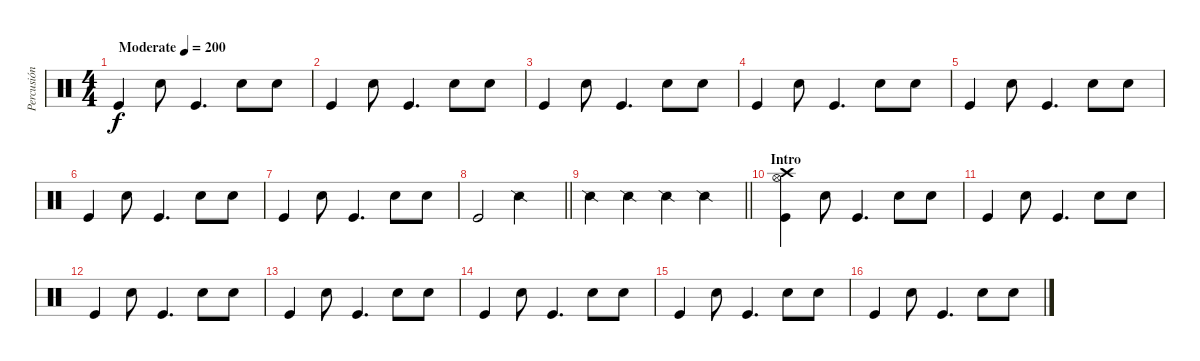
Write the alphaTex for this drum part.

\track ("Percusión" "Percusión") {instrument percussion}
\staff {score}
\articulation defaults
\ts (4 4)
\tempo (200 "Moderate")
\clef neutral
\ks c "Kick (hit)".4{dy f} "Snare (hit) 2".8 "Kick (hit)".4{d} "Snare (hit) 2".8 "Snare (hit) 2".8
|
"Kick (hit)".4 "Snare (hit) 2".8 "Kick (hit)".4{d} "Snare (hit) 2".8 "Snare (hit) 2".8 |
"Kick (hit)".4 "Snare (hit) 2".8 "Kick (hit)".4{d} "Snare (hit) 2".8 "Snare (hit) 2".8 |
"Kick (hit)".4 "Snare (hit) 2".8 "Kick (hit)".4{d} "Snare (hit) 2".8 "Snare (hit) 2".8 |
"Kick (hit)".4 "Snare (hit) 2".8 "Kick (hit)".4{d} "Snare (hit) 2".8 "Snare (hit) 2".8 |
"Kick (hit)".4 "Snare (hit) 2".8 "Kick (hit)".4{d} "Snare (hit) 2".8 "Snare (hit) 2".8 |
"Kick (hit)".4 "Snare (hit) 2".8 "Kick (hit)".4{d} "Snare (hit) 2".8 "Snare (hit) 2".8 |
\barLineRight lightlight "Kick (hit)".2 "Snare (side stick) 2".2
|
\barLineRight lightlight "Snare (side stick) 2".4 "Snare (side stick) 2".4 "Snare (side stick) 2".4 "Snare (side stick) 2".4
|
\section ("" "Intro")
("Hi-Hat (open)" "Crash high (hit)" "Kick (hit)").4 "Snare (hit) 2".8 "Kick (hit)".4{d} "Snare (hit) 2".8 "Snare (hit) 2".8 |
"Kick (hit)".4 "Snare (hit) 2".8 "Kick (hit)".4{d} "Snare (hit) 2".8 "Snare (hit) 2".8 |
"Kick (hit)".4 "Snare (hit) 2".8 "Kick (hit)".4{d} "Snare (hit) 2".8 "Snare (hit) 2".8 |
"Kick (hit)".4 "Snare (hit) 2".8 "Kick (hit)".4{d} "Snare (hit) 2".8 "Snare (hit) 2".8 |
"Kick (hit)".4 "Snare (hit) 2".8 "Kick (hit)".4{d} "Snare (hit) 2".8 "Snare (hit) 2".8 |
"Kick (hit)".4 "Snare (hit) 2".8 "Kick (hit)".4{d} "Snare (hit) 2".8 "Snare (hit) 2".8 |
"Kick (hit)".4 "Snare (hit) 2".8 "Kick (hit)".4{d} "Snare (hit) 2".8 "Snare (hit) 2".8
